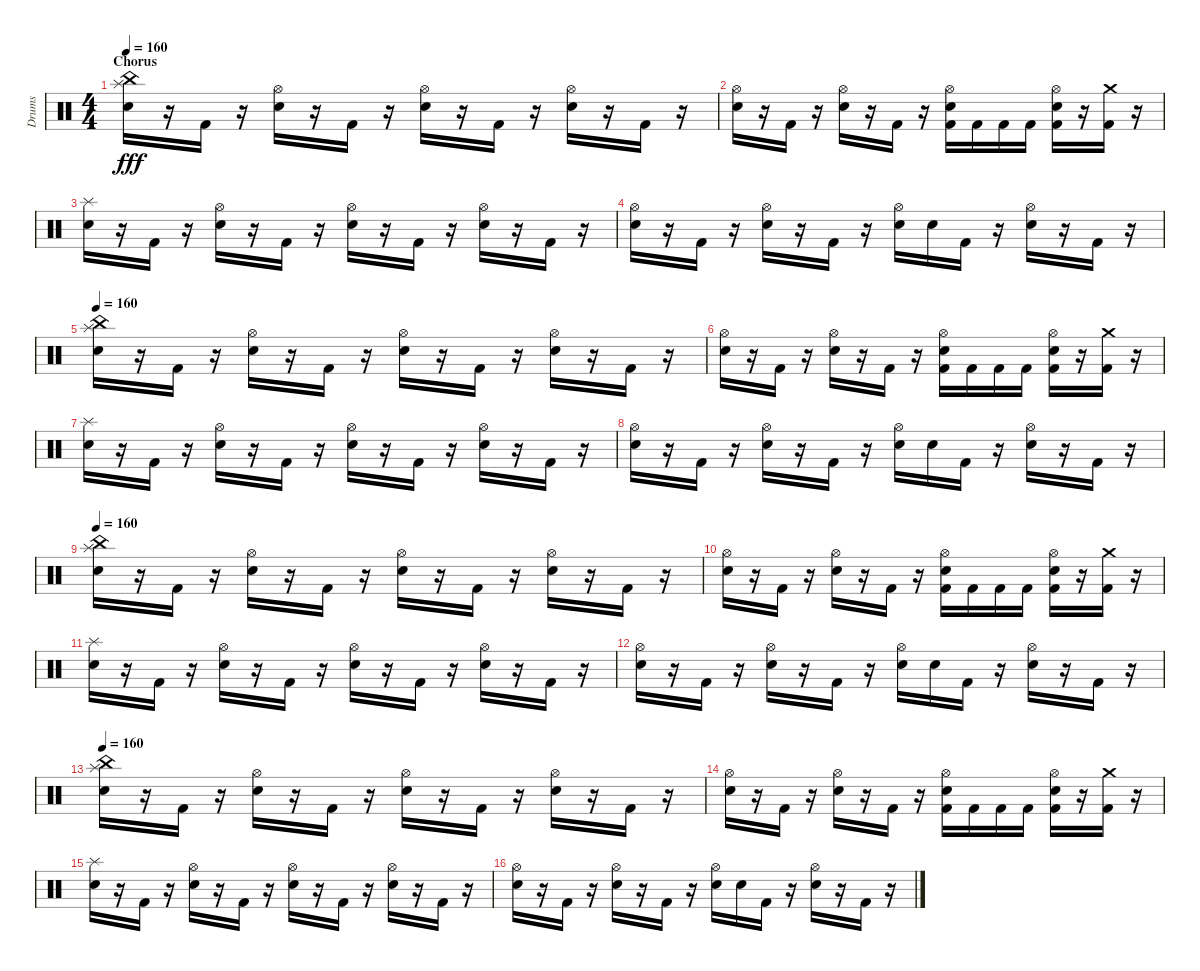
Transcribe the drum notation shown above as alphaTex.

\track ("Drums" "Drums") {instrument percussion}
\staff {score}
\articulation defaults
\ts (4 4)
\section ("" "Chorus")
\tempo 160
\clef neutral
\ks c
("Snare (hit) 2" "Splash (hit)" "China (hit)").16{dy fff} r.16 "Kick (hit) 2".16 r.16 ("Snare (hit) 2" "Hi-Hat (open)").16 r.16 "Kick (hit) 2".16 r.16 ("Snare (hit) 2" "Hi-Hat (open)").16 r.16 "Kick (hit) 2".16 r.16 ("Snare (hit) 2" "Hi-Hat (open)").16 r.16 "Kick (hit) 2".16 r.16 |
("Snare (hit) 2" "Hi-Hat (open)").16 r.16 "Kick (hit) 2".16 r.16 ("Snare (hit) 2" "Hi-Hat (open)").16 r.16 "Kick (hit) 2".16 r.16 ("Kick (hit) 2" "Snare (hit) 2" "Hi-Hat (open)").16 "Kick (hit) 2".16 "Kick (hit) 2".16 "Kick (hit) 2".16 ("Kick (hit) 2" "Snare (hit) 2" "Hi-Hat (open)").16 r.16 ("Kick (hit) 2" "Crash medium (hit)").16 r.16 |
("Snare (hit) 2" "Splash (hit)").16 r.16 "Kick (hit) 2".16 r.16 ("Snare (hit) 2" "Hi-Hat (open)").16 r.16 "Kick (hit) 2".16 r.16 ("Snare (hit) 2" "Hi-Hat (open)").16 r.16 "Kick (hit) 2".16 r.16 ("Snare (hit) 2" "Hi-Hat (open)").16 r.16 "Kick (hit) 2".16 r.16 |
("Snare (hit) 2" "Hi-Hat (open)").16 r.16 "Kick (hit) 2".16 r.16 ("Snare (hit) 2" "Hi-Hat (open)").16 r.16 "Kick (hit) 2".16 r.16 ("Snare (hit) 2" "Hi-Hat (open)").16 "Snare (hit) 2".16 "Kick (hit) 2".16 r.16 ("Snare (hit) 2" "Hi-Hat (open)").16 r.16 "Kick (hit) 2".16 r.16 |
\tempo 160
("Snare (hit) 2" "Splash (hit)" "China (hit)").16 r.16 "Kick (hit) 2".16 r.16 ("Snare (hit) 2" "Hi-Hat (open)").16 r.16 "Kick (hit) 2".16 r.16 ("Snare (hit) 2" "Hi-Hat (open)").16 r.16 "Kick (hit) 2".16 r.16 ("Snare (hit) 2" "Hi-Hat (open)").16 r.16 "Kick (hit) 2".16 r.16 |
("Snare (hit) 2" "Hi-Hat (open)").16 r.16 "Kick (hit) 2".16 r.16 ("Snare (hit) 2" "Hi-Hat (open)").16 r.16 "Kick (hit) 2".16 r.16 ("Kick (hit) 2" "Snare (hit) 2" "Hi-Hat (open)").16 "Kick (hit) 2".16 "Kick (hit) 2".16 "Kick (hit) 2".16 ("Kick (hit) 2" "Snare (hit) 2" "Hi-Hat (open)").16 r.16 ("Kick (hit) 2" "Crash medium (hit)").16 r.16 |
("Snare (hit) 2" "Splash (hit)").16 r.16 "Kick (hit) 2".16 r.16 ("Snare (hit) 2" "Hi-Hat (open)").16 r.16 "Kick (hit) 2".16 r.16 ("Snare (hit) 2" "Hi-Hat (open)").16 r.16 "Kick (hit) 2".16 r.16 ("Snare (hit) 2" "Hi-Hat (open)").16 r.16 "Kick (hit) 2".16 r.16 |
("Snare (hit) 2" "Hi-Hat (open)").16 r.16 "Kick (hit) 2".16 r.16 ("Snare (hit) 2" "Hi-Hat (open)").16 r.16 "Kick (hit) 2".16 r.16 ("Snare (hit) 2" "Hi-Hat (open)").16 "Snare (hit) 2".16 "Kick (hit) 2".16 r.16 ("Snare (hit) 2" "Hi-Hat (open)").16 r.16 "Kick (hit) 2".16 r.16 |
\tempo 160
("Snare (hit) 2" "Splash (hit)" "China (hit)").16 r.16 "Kick (hit) 2".16 r.16 ("Snare (hit) 2" "Hi-Hat (open)").16 r.16 "Kick (hit) 2".16 r.16 ("Snare (hit) 2" "Hi-Hat (open)").16 r.16 "Kick (hit) 2".16 r.16 ("Snare (hit) 2" "Hi-Hat (open)").16 r.16 "Kick (hit) 2".16 r.16 |
("Snare (hit) 2" "Hi-Hat (open)").16 r.16 "Kick (hit) 2".16 r.16 ("Snare (hit) 2" "Hi-Hat (open)").16 r.16 "Kick (hit) 2".16 r.16 ("Kick (hit) 2" "Snare (hit) 2" "Hi-Hat (open)").16 "Kick (hit) 2".16 "Kick (hit) 2".16 "Kick (hit) 2".16 ("Kick (hit) 2" "Snare (hit) 2" "Hi-Hat (open)").16 r.16 ("Kick (hit) 2" "Crash medium (hit)").16 r.16 |
("Snare (hit) 2" "Splash (hit)").16 r.16 "Kick (hit) 2".16 r.16 ("Snare (hit) 2" "Hi-Hat (open)").16 r.16 "Kick (hit) 2".16 r.16 ("Snare (hit) 2" "Hi-Hat (open)").16 r.16 "Kick (hit) 2".16 r.16 ("Snare (hit) 2" "Hi-Hat (open)").16 r.16 "Kick (hit) 2".16 r.16 |
("Snare (hit) 2" "Hi-Hat (open)").16 r.16 "Kick (hit) 2".16 r.16 ("Snare (hit) 2" "Hi-Hat (open)").16 r.16 "Kick (hit) 2".16 r.16 ("Snare (hit) 2" "Hi-Hat (open)").16 "Snare (hit) 2".16 "Kick (hit) 2".16 r.16 ("Snare (hit) 2" "Hi-Hat (open)").16 r.16 "Kick (hit) 2".16 r.16 |
\tempo 160
("Snare (hit) 2" "Splash (hit)" "China (hit)").16 r.16 "Kick (hit) 2".16 r.16 ("Snare (hit) 2" "Hi-Hat (open)").16 r.16 "Kick (hit) 2".16 r.16 ("Snare (hit) 2" "Hi-Hat (open)").16 r.16 "Kick (hit) 2".16 r.16 ("Snare (hit) 2" "Hi-Hat (open)").16 r.16 "Kick (hit) 2".16 r.16 |
("Snare (hit) 2" "Hi-Hat (open)").16 r.16 "Kick (hit) 2".16 r.16 ("Snare (hit) 2" "Hi-Hat (open)").16 r.16 "Kick (hit) 2".16 r.16 ("Kick (hit) 2" "Snare (hit) 2" "Hi-Hat (open)").16 "Kick (hit) 2".16 "Kick (hit) 2".16 "Kick (hit) 2".16 ("Kick (hit) 2" "Snare (hit) 2" "Hi-Hat (open)").16 r.16 ("Kick (hit) 2" "Crash medium (hit)").16 r.16 |
("Snare (hit) 2" "Splash (hit)").16 r.16 "Kick (hit) 2".16 r.16 ("Snare (hit) 2" "Hi-Hat (open)").16 r.16 "Kick (hit) 2".16 r.16 ("Snare (hit) 2" "Hi-Hat (open)").16 r.16 "Kick (hit) 2".16 r.16 ("Snare (hit) 2" "Hi-Hat (open)").16 r.16 "Kick (hit) 2".16 r.16 |
("Snare (hit) 2" "Hi-Hat (open)").16 r.16 "Kick (hit) 2".16 r.16 ("Snare (hit) 2" "Hi-Hat (open)").16 r.16 "Kick (hit) 2".16 r.16 ("Snare (hit) 2" "Hi-Hat (open)").16 "Snare (hit) 2".16 "Kick (hit) 2".16 r.16 ("Snare (hit) 2" "Hi-Hat (open)").16 r.16 "Kick (hit) 2".16 r.16
